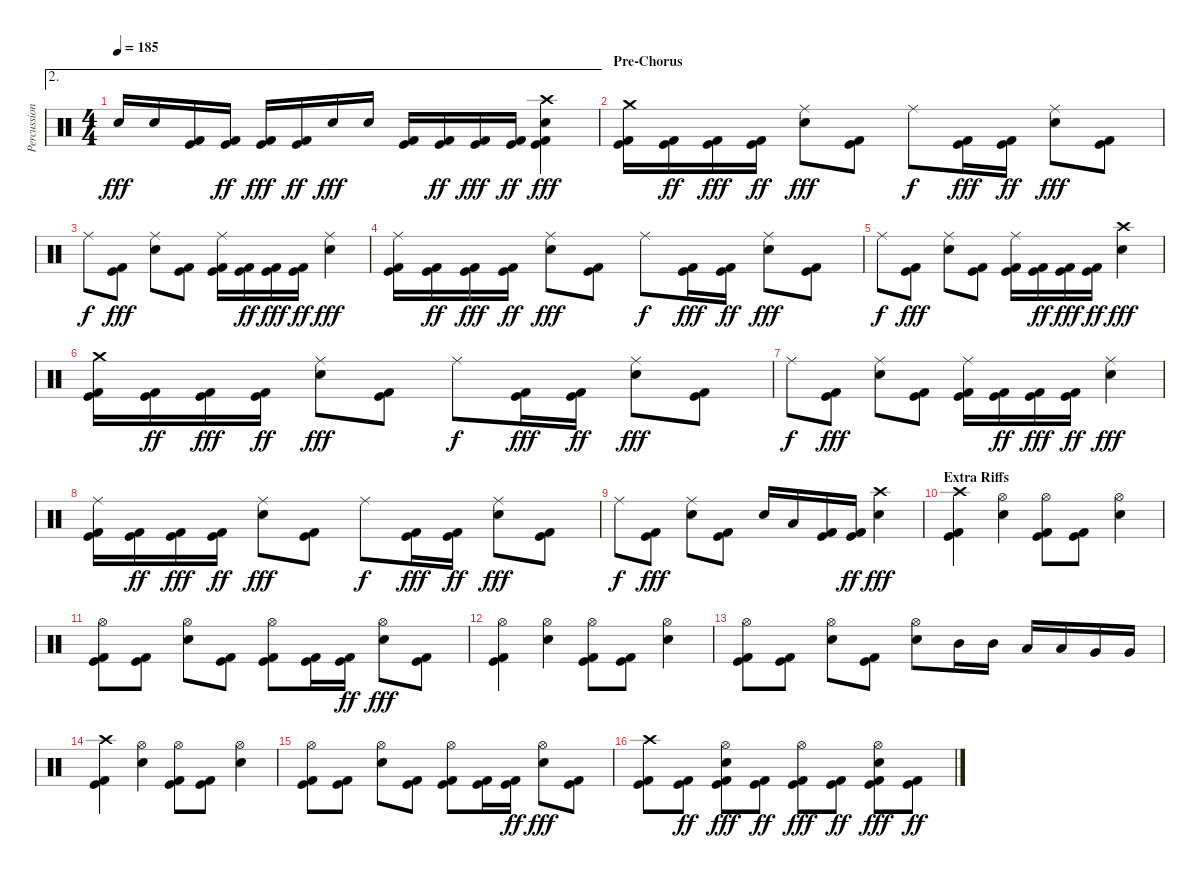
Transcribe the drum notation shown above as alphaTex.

\track ("Percussion" "Percussion") {instrument percussion}
\staff {score}
\articulation defaults
\ae 2
\ts (4 4)
\tempo 185
\clef neutral
\ks c "Snare (hit) 2".16{dy fff} "Snare (hit) 2".16
("Kick (hit)" "Kick (hit) 2").16 ("Kick (hit)" "Kick (hit) 2").16{dy ff} ("Kick (hit)" "Kick (hit) 2").16{dy fff} ("Kick (hit)" "Kick (hit) 2").16{dy ff} "Snare (hit) 2".16{dy fff} "Snare (hit) 2".16 ("Kick (hit)" "Kick (hit) 2").16 ("Kick (hit)" "Kick (hit) 2").16{dy ff} ("Kick (hit)" "Kick (hit) 2").16{dy fff} ("Kick (hit)" "Kick (hit) 2").16{dy ff} ("Crash high (hit)" "Snare (hit) 2" "Kick (hit)" "Kick (hit) 2").4{dy fff} |
\section ("" "Pre-Chorus")
("Crash medium (hit)" "Kick (hit)" "Kick (hit) 2").16 ("Kick (hit)" "Kick (hit) 2").16{dy ff} ("Kick (hit)" "Kick (hit) 2").16{dy fff} ("Kick (hit)" "Kick (hit) 2").16{dy ff} ("Ride (middle)" "Snare (hit) 2").8{dy fff} ("Kick (hit)" "Kick (hit) 2").8 "Ride (middle)".8{dy f} ("Kick (hit)" "Kick (hit) 2").16{dy fff} ("Kick (hit)" "Kick (hit) 2").16{dy ff} ("Ride (middle)" "Snare (hit) 2").8{dy fff} ("Kick (hit)" "Kick (hit) 2").8 |
"Ride (middle)".8{dy f} ("Kick (hit)" "Kick (hit) 2").8{dy fff} ("Ride (middle)" "Snare (hit) 2").8 ("Kick (hit)" "Kick (hit) 2").8 ("Ride (middle)" "Kick (hit)" "Kick (hit) 2").16 ("Kick (hit)" "Kick (hit) 2").16{dy ff} ("Kick (hit)" "Kick (hit) 2").16{dy fff} ("Kick (hit)" "Kick (hit) 2").16{dy ff} ("Ride (middle)" "Snare (hit) 2").4{dy fff} |
("Ride (middle)" "Kick (hit)" "Kick (hit) 2").16 ("Kick (hit)" "Kick (hit) 2").16{dy ff} ("Kick (hit)" "Kick (hit) 2").16{dy fff} ("Kick (hit)" "Kick (hit) 2").16{dy ff} ("Ride (middle)" "Snare (hit) 2").8{dy fff} ("Kick (hit)" "Kick (hit) 2").8 "Ride (middle)".8{dy f} ("Kick (hit)" "Kick (hit) 2").16{dy fff} ("Kick (hit)" "Kick (hit) 2").16{dy ff} ("Ride (middle)" "Snare (hit) 2").8{dy fff} ("Kick (hit)" "Kick (hit) 2").8 |
"Ride (middle)".8{dy f} ("Kick (hit)" "Kick (hit) 2").8{dy fff} ("Ride (middle)" "Snare (hit) 2").8 ("Kick (hit)" "Kick (hit) 2").8 ("Ride (middle)" "Kick (hit)" "Kick (hit) 2").16 ("Kick (hit)" "Kick (hit) 2").16{dy ff} ("Kick (hit)" "Kick (hit) 2").16{dy fff} ("Kick (hit)" "Kick (hit) 2").16{dy ff} ("Crash high (hit)" "Snare (hit) 2").4{dy fff} |
("Crash medium (hit)" "Kick (hit)" "Kick (hit) 2").16 ("Kick (hit)" "Kick (hit) 2").16{dy ff} ("Kick (hit)" "Kick (hit) 2").16{dy fff} ("Kick (hit)" "Kick (hit) 2").16{dy ff} ("Ride (middle)" "Snare (hit) 2").8{dy fff} ("Kick (hit)" "Kick (hit) 2").8 "Ride (middle)".8{dy f} ("Kick (hit)" "Kick (hit) 2").16{dy fff} ("Kick (hit)" "Kick (hit) 2").16{dy ff} ("Ride (middle)" "Snare (hit) 2").8{dy fff} ("Kick (hit)" "Kick (hit) 2").8 |
"Ride (middle)".8{dy f} ("Kick (hit)" "Kick (hit) 2").8{dy fff} ("Ride (middle)" "Snare (hit) 2").8 ("Kick (hit)" "Kick (hit) 2").8 ("Ride (middle)" "Kick (hit)" "Kick (hit) 2").16 ("Kick (hit)" "Kick (hit) 2").16{dy ff} ("Kick (hit)" "Kick (hit) 2").16{dy fff} ("Kick (hit)" "Kick (hit) 2").16{dy ff} ("Ride (middle)" "Snare (hit) 2").4{dy fff} |
("Ride (middle)" "Kick (hit)" "Kick (hit) 2").16 ("Kick (hit)" "Kick (hit) 2").16{dy ff} ("Kick (hit)" "Kick (hit) 2").16{dy fff} ("Kick (hit)" "Kick (hit) 2").16{dy ff} ("Ride (middle)" "Snare (hit) 2").8{dy fff} ("Kick (hit)" "Kick (hit) 2").8 "Ride (middle)".8{dy f} ("Kick (hit)" "Kick (hit) 2").16{dy fff} ("Kick (hit)" "Kick (hit) 2").16{dy ff} ("Ride (middle)" "Snare (hit) 2").8{dy fff} ("Kick (hit)" "Kick (hit) 2").8 |
"Ride (middle)".8{dy f} ("Kick (hit)" "Kick (hit) 2").8{dy fff} ("Ride (middle)" "Snare (hit) 2").8 ("Kick (hit)" "Kick (hit) 2").8 "Snare (hit) 2".16 "Low Tom (hit)".16 ("Kick (hit)" "Kick (hit) 2").16 ("Kick (hit)" "Kick (hit) 2").16{dy ff} ("Crash high (hit)" "Snare (hit) 2").4{dy fff} |
\section ("" "Extra Riffs")
("Crash high (hit)" "Kick (hit)" "Kick (hit) 2").4 ("Hi-Hat (open)" "Snare (hit) 2").4 ("Hi-Hat (open)" "Kick (hit)" "Kick (hit) 2").8 ("Kick (hit)" "Kick (hit) 2").8 ("Hi-Hat (open)" "Snare (hit) 2").4 |
("Hi-Hat (open)" "Kick (hit)" "Kick (hit) 2").8 ("Kick (hit)" "Kick (hit) 2").8 ("Hi-Hat (open)" "Snare (hit) 2").8 ("Kick (hit)" "Kick (hit) 2").8 ("Hi-Hat (open)" "Kick (hit)" "Kick (hit) 2").8 ("Kick (hit)" "Kick (hit) 2").16 ("Kick (hit)" "Kick (hit) 2").16{dy ff} ("Hi-Hat (open)" "Snare (hit) 2").8{dy fff} ("Kick (hit)" "Kick (hit) 2").8 |
("Hi-Hat (open)" "Kick (hit)" "Kick (hit) 2").4 ("Hi-Hat (open)" "Snare (hit) 2").4 ("Hi-Hat (open)" "Kick (hit)" "Kick (hit) 2").8 ("Kick (hit)" "Kick (hit) 2").8 ("Hi-Hat (open)" "Snare (hit) 2").4 |
("Hi-Hat (open)" "Kick (hit)" "Kick (hit) 2").8 ("Kick (hit)" "Kick (hit) 2").8 ("Hi-Hat (open)" "Snare (hit) 2").8 ("Kick (hit)" "Kick (hit) 2").8 ("Hi-Hat (open)" "Snare (hit) 2").8 "Mid Tom (hit)".16 "Mid Tom (hit)".16 "Low Tom (hit)".16 "Low Tom (hit)".16 "Very Low Tom (hit)".16 "Very Low Tom (hit)".16 |
("Crash high (hit)" "Kick (hit)" "Kick (hit) 2").4 ("Hi-Hat (open)" "Snare (hit) 2").4 ("Hi-Hat (open)" "Kick (hit)" "Kick (hit) 2").8 ("Kick (hit)" "Kick (hit) 2").8 ("Hi-Hat (open)" "Snare (hit) 2").4 |
("Hi-Hat (open)" "Kick (hit)" "Kick (hit) 2").8 ("Kick (hit)" "Kick (hit) 2").8 ("Hi-Hat (open)" "Snare (hit) 2").8 ("Kick (hit)" "Kick (hit) 2").8 ("Hi-Hat (open)" "Kick (hit)" "Kick (hit) 2").8 ("Kick (hit)" "Kick (hit) 2").16 ("Kick (hit)" "Kick (hit) 2").16{dy ff} ("Hi-Hat (open)" "Snare (hit) 2").8{dy fff} ("Kick (hit)" "Kick (hit) 2").8 |
("Crash high (hit)" "Kick (hit)" "Kick (hit) 2").8 ("Kick (hit)" "Kick (hit) 2").8{dy ff} ("Hi-Hat (open)" "Snare (hit) 2" "Kick (hit)" "Kick (hit) 2").8{dy fff} ("Kick (hit)" "Kick (hit) 2").8{dy ff} ("Hi-Hat (open)" "Kick (hit)" "Kick (hit) 2").8{dy fff} ("Kick (hit)" "Kick (hit) 2").8{dy ff} ("Hi-Hat (open)" "Snare (hit) 2" "Kick (hit)" "Kick (hit) 2").8{dy fff} ("Kick (hit)" "Kick (hit) 2").8{dy ff}
